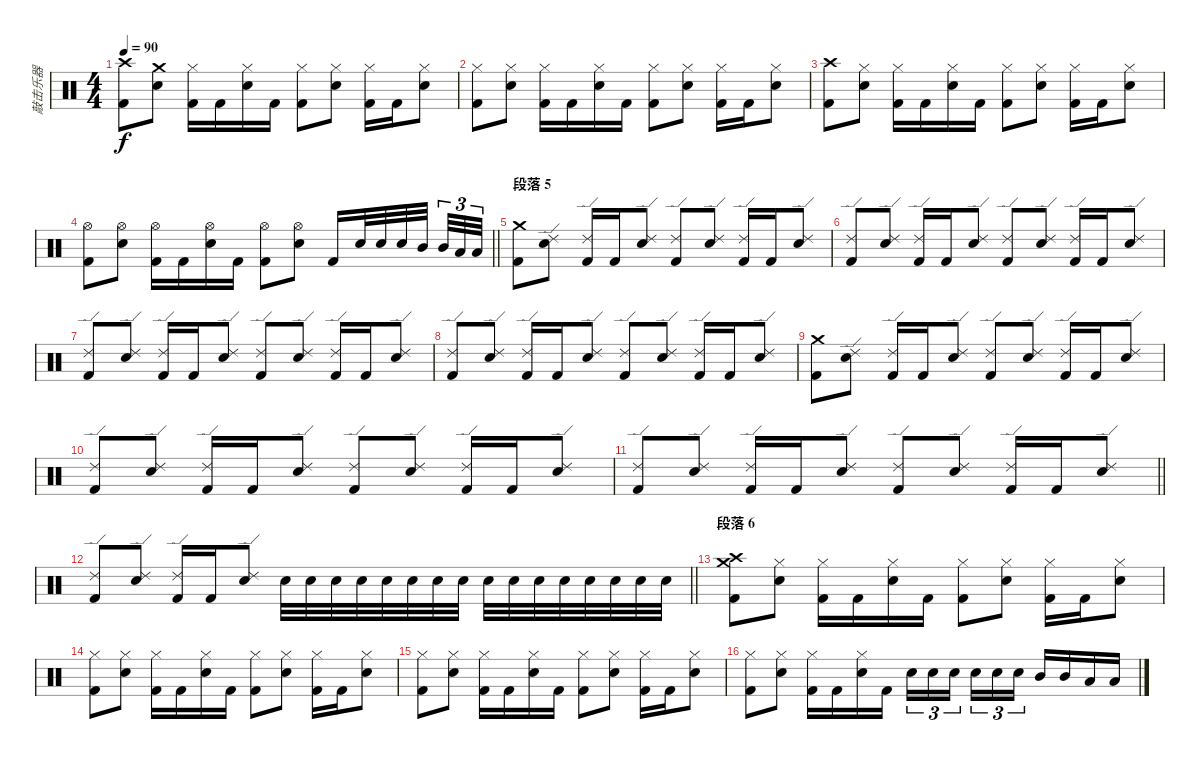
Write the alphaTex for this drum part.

\track ("敲击乐器" "敲击乐器") {instrument percussion}
\staff {score}
\articulation defaults
\ts (4 4)
\tempo 90
\clef neutral
\ks c
("Crash high (hit)" "Kick (hit) 2").8{dy f} ("Crash medium (hit)" "Snare (hit) 2").8 ("Hi-Hat (closed)" "Kick (hit) 2").16 "Kick (hit) 2".16 ("Hi-Hat (closed)" "Snare (hit) 2").16 "Kick (hit) 2".16 ("Hi-Hat (closed)" "Kick (hit) 2").8 ("Hi-Hat (closed)" "Snare (hit) 2").8 ("Hi-Hat (closed)" "Kick (hit) 2").16 "Kick (hit) 2".16 ("Hi-Hat (closed)" "Snare (hit) 2").8 |
("Hi-Hat (closed)" "Kick (hit) 2").8 ("Hi-Hat (closed)" "Snare (hit) 2").8 ("Hi-Hat (closed)" "Kick (hit) 2").16 "Kick (hit) 2".16 ("Hi-Hat (closed)" "Snare (hit) 2").16 "Kick (hit) 2".16 ("Hi-Hat (closed)" "Kick (hit) 2").8 ("Hi-Hat (closed)" "Snare (hit) 2").8 ("Hi-Hat (closed)" "Kick (hit) 2").16 "Kick (hit) 2".16 ("Hi-Hat (closed)" "Snare (hit) 2").8 |
("Crash high (hit)" "Kick (hit) 2").8 ("Hi-Hat (closed)" "Snare (hit) 2").8 ("Hi-Hat (closed)" "Kick (hit) 2").16 "Kick (hit) 2".16 ("Hi-Hat (closed)" "Snare (hit) 2").16 "Kick (hit) 2".16 ("Hi-Hat (closed)" "Kick (hit) 2").8 ("Hi-Hat (closed)" "Snare (hit) 2").8 ("Hi-Hat (closed)" "Kick (hit) 2").16 "Kick (hit) 2".16 ("Hi-Hat (closed)" "Snare (hit) 2").8 |
\barLineRight lightlight
("Hi-Hat (open)" "Kick (hit) 2").8 ("Hi-Hat (open)" "Snare (hit) 2").8 ("Hi-Hat (open)" "Kick (hit) 2").16 "Kick (hit) 2".16 ("Hi-Hat (open)" "Snare (hit) 2").16 "Kick (hit) 2".16 ("Hi-Hat (open)" "Kick (hit) 2").8 ("Hi-Hat (open)" "Snare (hit) 2").8 "Kick (hit) 2".16 "Snare (hit) 2".32 "Snare (hit) 2".32 "Snare (hit) 2".32 "Mid Tom (hit)".32{beam splitsecondary} "Mid Tom (hit)".32{tu (3 2)} "Low Tom (hit)".32{tu (3 2)} "Low Tom (hit)".32{tu (3 2)} |
\section ("" "段落 5")
("Crash medium (hit)" "Kick (hit) 2").8 ("Ride (edge) 2" "Snare (hit) 2").8 ("Ride (edge) 2" "Kick (hit) 2").16 "Kick (hit) 2".16 ("Ride (edge) 2" "Snare (hit) 2").8 ("Ride (edge) 2" "Kick (hit) 2").8 ("Ride (edge) 2" "Snare (hit) 2").8 ("Ride (edge) 2" "Kick (hit) 2").16 "Kick (hit) 2".16 ("Ride (edge) 2" "Snare (hit) 2").8 |
("Ride (edge) 2" "Kick (hit) 2").8 ("Ride (edge) 2" "Snare (hit) 2").8 ("Ride (edge) 2" "Kick (hit) 2").16 "Kick (hit) 2".16 ("Ride (edge) 2" "Snare (hit) 2").8 ("Ride (edge) 2" "Kick (hit) 2").8 ("Ride (edge) 2" "Snare (hit) 2").8 ("Ride (edge) 2" "Kick (hit) 2").16 "Kick (hit) 2".16 ("Ride (edge) 2" "Snare (hit) 2").8 |
("Ride (edge) 2" "Kick (hit) 2").8 ("Ride (edge) 2" "Snare (hit) 2").8 ("Ride (edge) 2" "Kick (hit) 2").16 "Kick (hit) 2".16 ("Ride (edge) 2" "Snare (hit) 2").8 ("Ride (edge) 2" "Kick (hit) 2").8 ("Ride (edge) 2" "Snare (hit) 2").8 ("Ride (edge) 2" "Kick (hit) 2").16 "Kick (hit) 2".16 ("Ride (edge) 2" "Snare (hit) 2").8 |
("Ride (edge) 2" "Kick (hit) 2").8 ("Ride (edge) 2" "Snare (hit) 2").8 ("Ride (edge) 2" "Kick (hit) 2").16 "Kick (hit) 2".16 ("Ride (edge) 2" "Snare (hit) 2").8 ("Ride (edge) 2" "Kick (hit) 2").8 ("Ride (edge) 2" "Snare (hit) 2").8 ("Ride (edge) 2" "Kick (hit) 2").16 "Kick (hit) 2".16 ("Ride (edge) 2" "Snare (hit) 2").8 |
("Crash medium (hit)" "Kick (hit) 2").8 ("Ride (edge) 2" "Snare (hit) 2").8 ("Ride (edge) 2" "Kick (hit) 2").16 "Kick (hit) 2".16 ("Ride (edge) 2" "Snare (hit) 2").8 ("Ride (edge) 2" "Kick (hit) 2").8 ("Ride (edge) 2" "Snare (hit) 2").8 ("Ride (edge) 2" "Kick (hit) 2").16 "Kick (hit) 2".16 ("Ride (edge) 2" "Snare (hit) 2").8 |
("Ride (edge) 2" "Kick (hit) 2").8 ("Ride (edge) 2" "Snare (hit) 2").8 ("Ride (edge) 2" "Kick (hit) 2").16 "Kick (hit) 2".16 ("Ride (edge) 2" "Snare (hit) 2").8 ("Ride (edge) 2" "Kick (hit) 2").8 ("Ride (edge) 2" "Snare (hit) 2").8 ("Ride (edge) 2" "Kick (hit) 2").16 "Kick (hit) 2".16 ("Ride (edge) 2" "Snare (hit) 2").8 |
\barLineRight lightlight
("Ride (edge) 2" "Kick (hit) 2").8 ("Ride (edge) 2" "Snare (hit) 2").8 ("Ride (edge) 2" "Kick (hit) 2").16 "Kick (hit) 2".16 ("Ride (edge) 2" "Snare (hit) 2").8 ("Ride (edge) 2" "Kick (hit) 2").8 ("Ride (edge) 2" "Snare (hit) 2").8 ("Ride (edge) 2" "Kick (hit) 2").16 "Kick (hit) 2".16 ("Ride (edge) 2" "Snare (hit) 2").8 |
\barLineRight lightlight
("Ride (edge) 2" "Kick (hit) 2").8 ("Ride (edge) 2" "Snare (hit) 2").8 ("Ride (edge) 2" "Kick (hit) 2").16 "Kick (hit) 2".16 ("Ride (edge) 2" "Snare (hit) 2").8 "Snare (hit) 2".32 "Snare (hit) 2".32 "Snare (hit) 2".32 "Snare (hit) 2".32 "Snare (hit) 2".32 "Snare (hit) 2".32 "Snare (hit) 2".32 "Snare (hit) 2".32 "Snare (hit) 2".32 "Snare (hit) 2".32 "Snare (hit) 2".32 "Snare (hit) 2".32 "Snare (hit) 2".32 "Snare (hit) 2".32 "Snare (hit) 2".32 "Snare (hit) 2".32 |
\section ("" "段落 6")
("Crash medium (hit)" "Crash high (hit)" "Kick (hit) 2").8 ("Hi-Hat (closed)" "Snare (hit) 2").8 ("Hi-Hat (closed)" "Kick (hit) 2").16 "Kick (hit) 2".16 ("Hi-Hat (closed)" "Snare (hit) 2").16 "Kick (hit) 2".16 ("Hi-Hat (closed)" "Kick (hit) 2").8 ("Hi-Hat (closed)" "Snare (hit) 2").8 ("Hi-Hat (closed)" "Kick (hit) 2").16 "Kick (hit) 2".16 ("Hi-Hat (closed)" "Snare (hit) 2").8 |
("Hi-Hat (closed)" "Kick (hit) 2").8 ("Hi-Hat (closed)" "Snare (hit) 2").8 ("Hi-Hat (closed)" "Kick (hit) 2").16 "Kick (hit) 2".16 ("Hi-Hat (closed)" "Snare (hit) 2").16 "Kick (hit) 2".16 ("Hi-Hat (closed)" "Kick (hit) 2").8 ("Hi-Hat (closed)" "Snare (hit) 2").8 ("Hi-Hat (closed)" "Kick (hit) 2").16 "Kick (hit) 2".16 ("Hi-Hat (closed)" "Snare (hit) 2").8 |
("Hi-Hat (closed)" "Kick (hit) 2").8 ("Hi-Hat (closed)" "Snare (hit) 2").8 ("Hi-Hat (closed)" "Kick (hit) 2").16 "Kick (hit) 2".16 ("Hi-Hat (closed)" "Snare (hit) 2").16 "Kick (hit) 2".16 ("Hi-Hat (closed)" "Kick (hit) 2").8 ("Hi-Hat (closed)" "Snare (hit) 2").8 ("Hi-Hat (closed)" "Kick (hit) 2").16 "Kick (hit) 2".16 ("Hi-Hat (closed)" "Snare (hit) 2").8 |
("Hi-Hat (closed)" "Kick (hit) 2").8 ("Hi-Hat (closed)" "Snare (hit) 2").8 ("Hi-Hat (closed)" "Kick (hit) 2").16 "Kick (hit) 2".16 ("Hi-Hat (closed)" "Snare (hit) 2").16 "Kick (hit) 2".16 "Snare (hit) 2".16{tu (3 2)} "Snare (hit) 2".16{tu (3 2)} "Snare (hit) 2".16{tu (3 2) beam splitsecondary} "Snare (hit) 2".16{tu (3 2)} "Snare (hit) 2".16{tu (3 2)} "Snare (hit) 2".16{tu (3 2)} "Mid Tom (hit)".16 "Mid Tom (hit)".16 "Low Tom (hit)".16 "Low Tom (hit)".16
